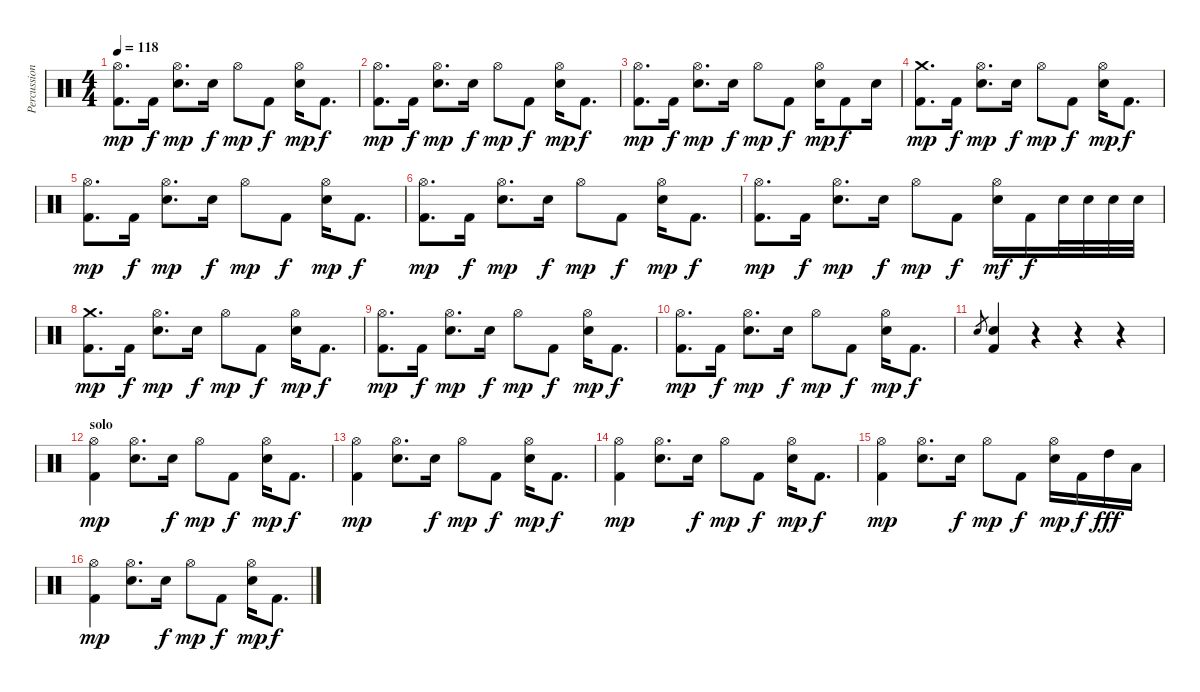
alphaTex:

\track ("Percussions" "Percussion") {instrument percussion}
\staff {score}
\articulation defaults
\ts (4 4)
\tempo 118
\clef neutral
\ks c
("Hi-Hat (open)" "Kick (hit) 2").8{d dy mp} "Kick (hit) 2".16{dy f} ("Hi-Hat (open)" "Snare (hit) 2").8{d dy mp} "Electric Snare (hit)".16{dy f} "Hi-Hat (open)".8{dy mp} "Kick (hit) 2".8{dy f} ("Hi-Hat (open)" "Snare (hit) 2").16{dy mp} "Kick (hit) 2".8{d dy f} |
("Hi-Hat (open)" "Kick (hit) 2").8{d dy mp} "Kick (hit) 2".16{dy f} ("Hi-Hat (open)" "Snare (hit) 2").8{d dy mp} "Electric Snare (hit)".16{dy f} "Hi-Hat (open)".8{dy mp} "Kick (hit) 2".8{dy f} ("Hi-Hat (open)" "Snare (hit) 2").16{dy mp} "Kick (hit) 2".8{d dy f} |
("Hi-Hat (open)" "Kick (hit) 2").8{d dy mp} "Kick (hit) 2".16{dy f} ("Hi-Hat (open)" "Snare (hit) 2").8{d dy mp} "Electric Snare (hit)".16{dy f} "Hi-Hat (open)".8{dy mp} "Kick (hit) 2".8{dy f} ("Hi-Hat (open)" "Snare (hit) 2").16{dy mp} "Kick (hit) 2".8{dy f} "Snare (hit) 2".16 |
("Crash medium (hit)" "Kick (hit) 2").8{d dy mp} "Kick (hit) 2".16{dy f} ("Hi-Hat (open)" "Snare (hit) 2").8{d dy mp} "Electric Snare (hit)".16{dy f} "Hi-Hat (open)".8{dy mp} "Kick (hit) 2".8{dy f} ("Hi-Hat (open)" "Snare (hit) 2").16{dy mp} "Kick (hit) 2".8{d dy f} |
("Hi-Hat (open)" "Kick (hit) 2").8{d dy mp} "Kick (hit) 2".16{dy f} ("Hi-Hat (open)" "Snare (hit) 2").8{d dy mp} "Electric Snare (hit)".16{dy f} "Hi-Hat (open)".8{dy mp} "Kick (hit) 2".8{dy f} ("Hi-Hat (open)" "Snare (hit) 2").16{dy mp} "Kick (hit) 2".8{d dy f} |
("Hi-Hat (open)" "Kick (hit) 2").8{d dy mp} "Kick (hit) 2".16{dy f} ("Hi-Hat (open)" "Snare (hit) 2").8{d dy mp} "Electric Snare (hit)".16{dy f} "Hi-Hat (open)".8{dy mp} "Kick (hit) 2".8{dy f} ("Hi-Hat (open)" "Snare (hit) 2").16{dy mp} "Kick (hit) 2".8{d dy f} |
("Hi-Hat (open)" "Kick (hit) 2").8{d dy mp} "Kick (hit) 2".16{dy f} ("Hi-Hat (open)" "Snare (hit) 2").8{d dy mp} "Electric Snare (hit)".16{dy f} "Hi-Hat (open)".8{dy mp} "Kick (hit) 2".8{dy f} ("Hi-Hat (open)" "Snare (hit) 2").16{dy mf} "Kick (hit) 2".16{dy f} "Snare (hit) 2".32 "Snare (hit) 2".32 "Snare (hit) 2".32 "Snare (hit) 2".32 |
("Crash medium (hit)" "Kick (hit) 2").8{d dy mp} "Kick (hit) 2".16{dy f} ("Hi-Hat (open)" "Snare (hit) 2").8{d dy mp} "Electric Snare (hit)".16{dy f} "Hi-Hat (open)".8{dy mp} "Kick (hit) 2".8{dy f} ("Hi-Hat (open)" "Snare (hit) 2").16{dy mp} "Kick (hit) 2".8{d dy f} |
("Hi-Hat (open)" "Kick (hit) 2").8{d dy mp} "Kick (hit) 2".16{dy f} ("Hi-Hat (open)" "Snare (hit) 2").8{d dy mp} "Electric Snare (hit)".16{dy f} "Hi-Hat (open)".8{dy mp} "Kick (hit) 2".8{dy f} ("Hi-Hat (open)" "Snare (hit) 2").16{dy mp} "Kick (hit) 2".8{d dy f} |
("Hi-Hat (open)" "Kick (hit) 2").8{d dy mp} "Kick (hit) 2".16{dy f} ("Hi-Hat (open)" "Snare (hit) 2").8{d dy mp} "Electric Snare (hit)".16{dy f} "Hi-Hat (open)".8{dy mp} "Kick (hit) 2".8{dy f} ("Hi-Hat (open)" "Snare (hit) 2").16{dy mp} "Kick (hit) 2".8{d dy f} |
"Snare (hit) 2".8{gr} ("Snare (hit) 2" "Kick (hit) 2").4 r.4 r.4 r.4 |
\section ("" "solo")
("Hi-Hat (open)" "Kick (hit) 2").4{dy mp} ("Hi-Hat (open)" "Snare (hit) 2").8{d} "Snare (hit) 2".16{dy f} "Hi-Hat (open)".8{dy mp} "Kick (hit) 2".8{dy f} ("Hi-Hat (open)" "Snare (hit) 2").16{dy mp} "Kick (hit) 2".8{d dy f} |
("Hi-Hat (open)" "Kick (hit) 2").4{dy mp} ("Hi-Hat (open)" "Snare (hit) 2").8{d} "Snare (hit) 2".16{dy f} "Hi-Hat (open)".8{dy mp} "Kick (hit) 2".8{dy f} ("Hi-Hat (open)" "Snare (hit) 2").16{dy mp} "Kick (hit) 2".8{d dy f} |
("Hi-Hat (open)" "Kick (hit) 2").4{dy mp} ("Hi-Hat (open)" "Snare (hit) 2").8{d} "Snare (hit) 2".16{dy f} "Hi-Hat (open)".8{dy mp} "Kick (hit) 2".8{dy f} ("Hi-Hat (open)" "Snare (hit) 2").16{dy mp} "Kick (hit) 2".8{d dy f} |
("Hi-Hat (open)" "Kick (hit) 2").4{dy mp} ("Hi-Hat (open)" "Snare (hit) 2").8{d} "Snare (hit) 2".16{dy f} "Hi-Hat (open)".8{dy mp} "Kick (hit) 2".8{dy f} ("Hi-Hat (open)" "Snare (hit) 2").16{dy mp} "Kick (hit) 2".16{dy f} "High Tom (hit)".16{dy fff} "Low Tom (hit)".16 |
("Hi-Hat (open)" "Kick (hit) 2").4{dy mp} ("Hi-Hat (open)" "Snare (hit) 2").8{d} "Snare (hit) 2".16{dy f} "Hi-Hat (open)".8{dy mp} "Kick (hit) 2".8{dy f} ("Hi-Hat (open)" "Snare (hit) 2").16{dy mp} "Kick (hit) 2".8{d dy f}
